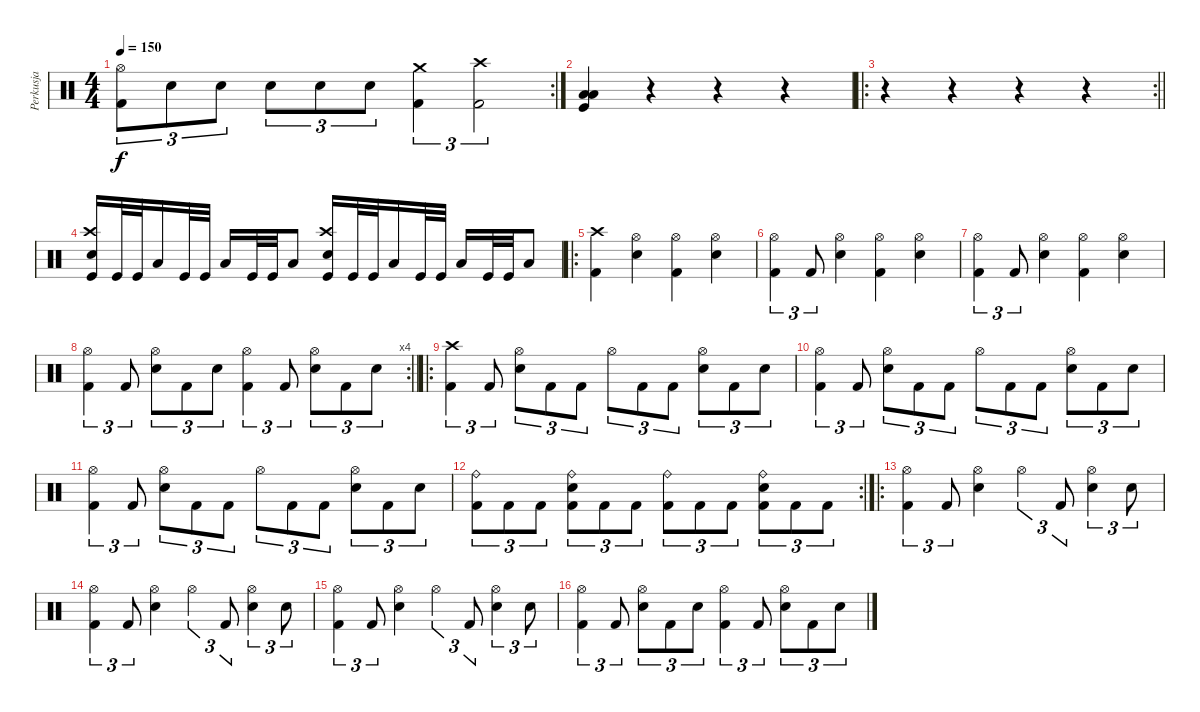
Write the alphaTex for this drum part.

\track ("Perkusja" "Perkusja") {instrument percussion}
\staff {score}
\articulation defaults
\rc 2
\ts (4 4)
\tempo 150
\clef neutral
\ks c
("Kick (hit) 2" "Hi-Hat (open)").8{tu (3 2) dy f} "Snare (hit) 2".8{tu (3 2)} "Snare (hit) 2".8{tu (3 2)} "Snare (hit) 2".8{tu (3 2)} "Snare (hit) 2".8{tu (3 2)} "Snare (hit) 2".8{tu (3 2)} ("Kick (hit) 2" "Crash medium (hit)").4{tu (3 2)} ("Kick (hit) 2" "Crash high (hit)").2{tu (3 2)} |
("Kick (hit)" "Low Floor Tom (hit)" "Low Tom (hit)").4 r.4 r.4 r.4 |
\ro
\rc 2
\barLineRight lightlight
r.4 r.4 r.4 r.4 |
("Kick (hit)" "Crash high (hit)" "Snare (hit) 2").16 "Kick (hit)".32 "Kick (hit)".32 "Low Floor Tom (hit)".16 "Kick (hit)".32 "Kick (hit)".32 "Low Floor Tom (hit)".16 "Kick (hit)".32 "Kick (hit)".32 "Low Floor Tom (hit)".8 ("Kick (hit)" "Crash high (hit)" "Snare (hit) 2").16 "Kick (hit)".32 "Kick (hit)".32 "Low Floor Tom (hit)".16 "Kick (hit)".32 "Kick (hit)".32 "Low Floor Tom (hit)".16 "Kick (hit)".32 "Kick (hit)".32 "Low Floor Tom (hit)".8 |
\ro
("Kick (hit) 2" "Crash high (hit)").4 ("Snare (hit) 2" "Hi-Hat (open)").4 ("Kick (hit) 2" "Hi-Hat (open)").4 ("Snare (hit) 2" "Hi-Hat (open)").4 |
("Kick (hit) 2" "Hi-Hat (open)").4{tu (3 2)} "Kick (hit) 2".8{tu (3 2)} ("Snare (hit) 2" "Hi-Hat (open)").4 ("Kick (hit) 2" "Hi-Hat (open)").4 ("Snare (hit) 2" "Hi-Hat (open)").4 |
("Kick (hit) 2" "Hi-Hat (open)").4{tu (3 2)} "Kick (hit) 2".8{tu (3 2)} ("Snare (hit) 2" "Hi-Hat (open)").4 ("Kick (hit) 2" "Hi-Hat (open)").4 ("Snare (hit) 2" "Hi-Hat (open)").4 |
\rc 4
\barLineRight lightlight
("Kick (hit) 2" "Hi-Hat (open)").4{tu (3 2)} "Kick (hit) 2".8{tu (3 2)} ("Snare (hit) 2" "Hi-Hat (open)").8{tu (3 2)} "Kick (hit) 2".8{tu (3 2)} "Snare (hit) 2".8{tu (3 2)} ("Kick (hit) 2" "Hi-Hat (open)").4{tu (3 2)} "Kick (hit) 2".8{tu (3 2)} ("Snare (hit) 2" "Hi-Hat (open)").8{tu (3 2)} "Kick (hit) 2".8{tu (3 2)} "Snare (hit) 2".8{tu (3 2)} |
\ro
("Crash high (hit)" "Kick (hit) 2").4{tu (3 2)} "Kick (hit) 2".8{tu (3 2)} ("Snare (hit) 2" "Hi-Hat (open)").8{tu (3 2)} "Kick (hit) 2".8{tu (3 2)} "Kick (hit) 2".8{tu (3 2)} "Hi-Hat (open)".8{tu (3 2)} "Kick (hit) 2".8{tu (3 2)} "Kick (hit) 2".8{tu (3 2)} ("Snare (hit) 2" "Hi-Hat (open)").8{tu (3 2)} "Kick (hit) 2".8{tu (3 2)} "Snare (hit) 2".8{tu (3 2)} |
("Hi-Hat (open)" "Kick (hit) 2").4{tu (3 2)} "Kick (hit) 2".8{tu (3 2)} ("Snare (hit) 2" "Hi-Hat (open)").8{tu (3 2)} "Kick (hit) 2".8{tu (3 2)} "Kick (hit) 2".8{tu (3 2)} "Hi-Hat (open)".8{tu (3 2)} "Kick (hit) 2".8{tu (3 2)} "Kick (hit) 2".8{tu (3 2)} ("Snare (hit) 2" "Hi-Hat (open)").8{tu (3 2)} "Kick (hit) 2".8{tu (3 2)} "Snare (hit) 2".8{tu (3 2)} |
("Hi-Hat (open)" "Kick (hit) 2").4{tu (3 2)} "Kick (hit) 2".8{tu (3 2)} ("Snare (hit) 2" "Hi-Hat (open)").8{tu (3 2)} "Kick (hit) 2".8{tu (3 2)} "Kick (hit) 2".8{tu (3 2)} "Hi-Hat (open)".8{tu (3 2)} "Kick (hit) 2".8{tu (3 2)} "Kick (hit) 2".8{tu (3 2)} ("Snare (hit) 2" "Hi-Hat (open)").8{tu (3 2)} "Kick (hit) 2".8{tu (3 2)} "Snare (hit) 2".8{tu (3 2)} |
\rc 2
("Kick (hit) 2" "Ride (bell)").8{tu (3 2)} "Kick (hit) 2".8{tu (3 2)} "Kick (hit) 2".8{tu (3 2)} ("Kick (hit) 2" "Snare (hit) 2" "Ride (bell)").8{tu (3 2)} "Kick (hit) 2".8{tu (3 2)} "Kick (hit) 2".8{tu (3 2)} ("Kick (hit) 2" "Ride (bell)").8{tu (3 2)} "Kick (hit) 2".8{tu (3 2)} "Kick (hit) 2".8{tu (3 2)} ("Kick (hit) 2" "Snare (hit) 2" "Ride (bell)").8{tu (3 2)} "Kick (hit) 2".8{tu (3 2)} "Kick (hit) 2".8{tu (3 2)} |
\ro
("Kick (hit) 2" "Hi-Hat (open)").4{tu (3 2)} "Kick (hit) 2".8{tu (3 2)} ("Snare (hit) 2" "Hi-Hat (open)").4 "Hi-Hat (open)".4{tu (3 2)} "Kick (hit) 2".8{tu (3 2)} ("Snare (hit) 2" "Hi-Hat (open)").4{tu (3 2)} "Snare (hit) 2".8{tu (3 2)} |
("Kick (hit) 2" "Hi-Hat (open)").4{tu (3 2)} "Kick (hit) 2".8{tu (3 2)} ("Snare (hit) 2" "Hi-Hat (open)").4 "Hi-Hat (open)".4{tu (3 2)} "Kick (hit) 2".8{tu (3 2)} ("Snare (hit) 2" "Hi-Hat (open)").4{tu (3 2)} "Snare (hit) 2".8{tu (3 2)} |
("Kick (hit) 2" "Hi-Hat (open)").4{tu (3 2)} "Kick (hit) 2".8{tu (3 2)} ("Snare (hit) 2" "Hi-Hat (open)").4 "Hi-Hat (open)".4{tu (3 2)} "Kick (hit) 2".8{tu (3 2)} ("Snare (hit) 2" "Hi-Hat (open)").4{tu (3 2)} "Snare (hit) 2".8{tu (3 2)} |
("Kick (hit) 2" "Hi-Hat (open)").4{tu (3 2)} "Kick (hit) 2".8{tu (3 2)} ("Snare (hit) 2" "Hi-Hat (open)").8{tu (3 2)} "Kick (hit) 2".8{tu (3 2)} "Snare (hit) 2".8{tu (3 2)} ("Kick (hit) 2" "Hi-Hat (open)").4{tu (3 2)} "Kick (hit) 2".8{tu (3 2)} ("Snare (hit) 2" "Hi-Hat (open)").8{tu (3 2)} "Kick (hit) 2".8{tu (3 2)} "Snare (hit) 2".8{tu (3 2)}
